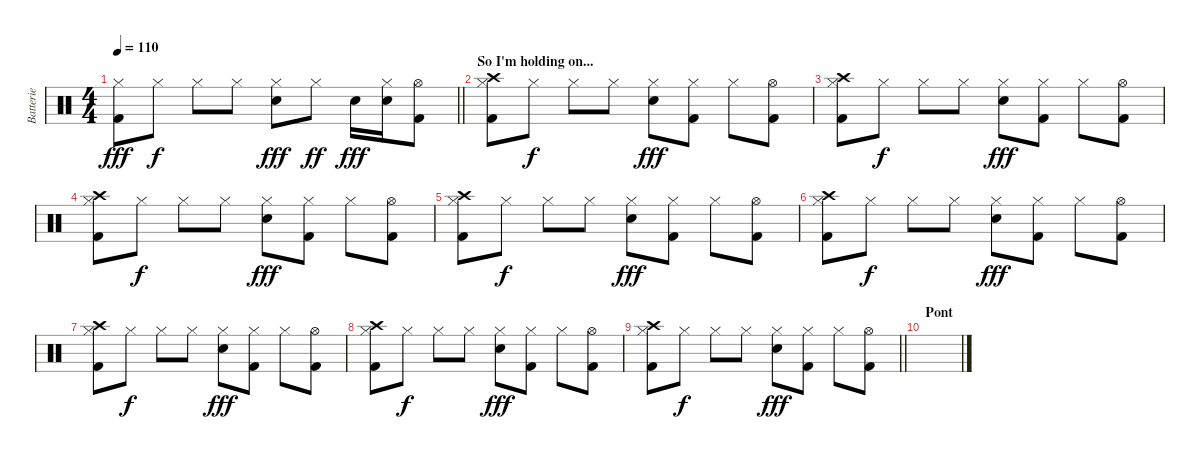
\track ("Batterie" "Batterie") {instrument percussion}
\staff {score}
\articulation defaults
\ts (4 4)
\tempo 110
\clef neutral
\barLineRight lightlight
\ks c
("Hi-Hat (closed)" "Kick (hit) 2").8{dy fff} "Hi-Hat (closed)".8{dy f} "Hi-Hat (closed)".8 "Hi-Hat (closed)".8 ("Hi-Hat (closed)" "Electric Snare (hit)").8{dy fff} "Hi-Hat (closed)".8{dy ff} "Electric Snare (hit)".16{dy fff} ("Hi-Hat (closed)" "Electric Snare (hit)").16 ("Hi-Hat (open)" "Kick (hit) 2").8 |
\section ("" "So I'm holding on...")
("Hi-Hat (closed)" "Crash high (hit)" "Kick (hit) 2").8 "Hi-Hat (closed)".8{dy f} "Hi-Hat (closed)".8 "Hi-Hat (closed)".8 ("Hi-Hat (closed)" "Electric Snare (hit)").8{dy fff} ("Hi-Hat (closed)" "Kick (hit) 2").8 "Hi-Hat (closed)".8 ("Hi-Hat (open)" "Kick (hit) 2").8 |
("Hi-Hat (closed)" "Crash high (hit)" "Kick (hit) 2").8 "Hi-Hat (closed)".8{dy f} "Hi-Hat (closed)".8 "Hi-Hat (closed)".8 ("Hi-Hat (closed)" "Electric Snare (hit)").8{dy fff} ("Hi-Hat (closed)" "Kick (hit) 2").8 "Hi-Hat (closed)".8 ("Hi-Hat (open)" "Kick (hit) 2").8 |
("Hi-Hat (closed)" "Crash high (hit)" "Kick (hit) 2").8 "Hi-Hat (closed)".8{dy f} "Hi-Hat (closed)".8 "Hi-Hat (closed)".8 ("Hi-Hat (closed)" "Electric Snare (hit)").8{dy fff} ("Hi-Hat (closed)" "Kick (hit) 2").8 "Hi-Hat (closed)".8 ("Hi-Hat (open)" "Kick (hit) 2").8 |
("Hi-Hat (closed)" "Crash high (hit)" "Kick (hit) 2").8 "Hi-Hat (closed)".8{dy f} "Hi-Hat (closed)".8 "Hi-Hat (closed)".8 ("Hi-Hat (closed)" "Electric Snare (hit)").8{dy fff} ("Hi-Hat (closed)" "Kick (hit) 2").8 "Hi-Hat (closed)".8 ("Hi-Hat (open)" "Kick (hit) 2").8 |
("Hi-Hat (closed)" "Crash high (hit)" "Kick (hit) 2").8 "Hi-Hat (closed)".8{dy f} "Hi-Hat (closed)".8 "Hi-Hat (closed)".8 ("Hi-Hat (closed)" "Electric Snare (hit)").8{dy fff} ("Hi-Hat (closed)" "Kick (hit) 2").8 "Hi-Hat (closed)".8 ("Hi-Hat (open)" "Kick (hit) 2").8 |
("Hi-Hat (closed)" "Crash high (hit)" "Kick (hit) 2").8 "Hi-Hat (closed)".8{dy f} "Hi-Hat (closed)".8 "Hi-Hat (closed)".8 ("Hi-Hat (closed)" "Electric Snare (hit)").8{dy fff} ("Hi-Hat (closed)" "Kick (hit) 2").8 "Hi-Hat (closed)".8 ("Hi-Hat (open)" "Kick (hit) 2").8 |
("Hi-Hat (closed)" "Crash high (hit)" "Kick (hit) 2").8 "Hi-Hat (closed)".8{dy f} "Hi-Hat (closed)".8 "Hi-Hat (closed)".8 ("Hi-Hat (closed)" "Electric Snare (hit)").8{dy fff} ("Hi-Hat (closed)" "Kick (hit) 2").8 "Hi-Hat (closed)".8 ("Hi-Hat (open)" "Kick (hit) 2").8 |
\barLineRight lightlight
("Hi-Hat (closed)" "Crash high (hit)" "Kick (hit) 2").8 "Hi-Hat (closed)".8{dy f} "Hi-Hat (closed)".8 "Hi-Hat (closed)".8 ("Hi-Hat (closed)" "Electric Snare (hit)").8{dy fff} ("Hi-Hat (closed)" "Kick (hit) 2").8 "Hi-Hat (closed)".8 ("Hi-Hat (open)" "Kick (hit) 2").8 |
\section ("" "Pont")
